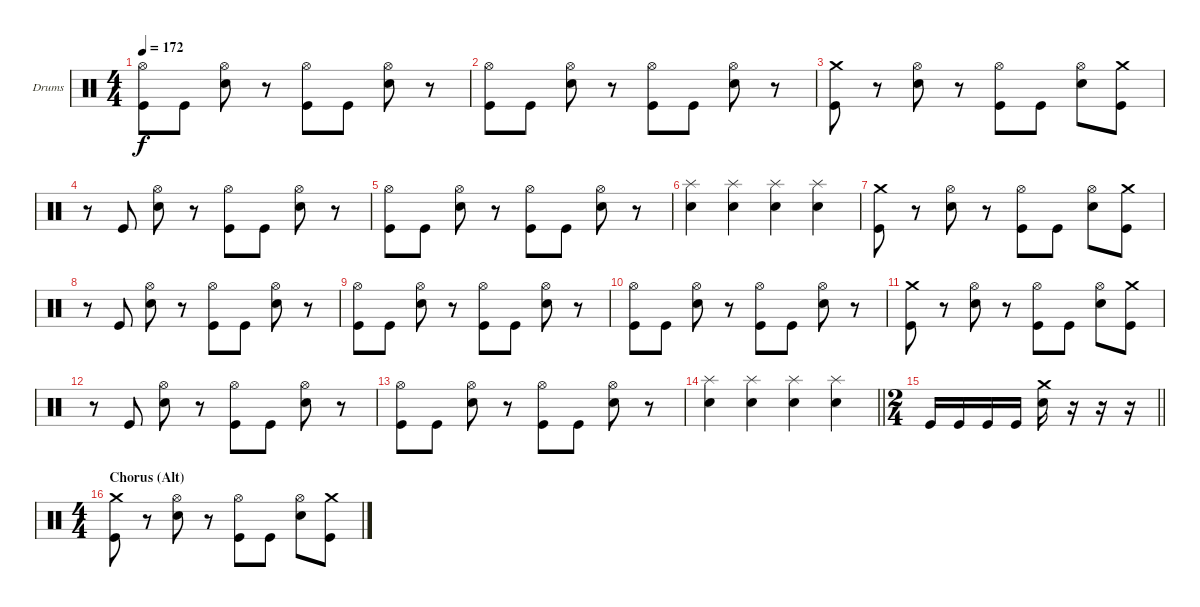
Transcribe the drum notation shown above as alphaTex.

\bracketExtendMode groupsimilarinstruments
\firstSystemTrackNameOrientation horizontal
\otherSystemsTrackNameOrientation horizontal
\track ("Drumkit" "Drums") {instrument percussion}
\staff {score}
\articulation defaults
\ts (4 4)
\tempo 172
\clef neutral
\ks c
("Hi-Hat (open)" "Kick (hit)").8{dy f} "Kick (hit)".8 ("Hi-Hat (open)" "Snare (hit) 2").8 r.8 ("Hi-Hat (open)" "Kick (hit)").8 "Kick (hit)".8 ("Hi-Hat (open)" "Snare (hit) 2").8 r.8 |
("Hi-Hat (open)" "Kick (hit)").8 "Kick (hit)".8 ("Hi-Hat (open)" "Snare (hit) 2").8 r.8 ("Hi-Hat (open)" "Kick (hit)").8 "Kick (hit)".8 ("Hi-Hat (open)" "Snare (hit) 2").8 r.8 |
("Crash medium (hit)" "Kick (hit)").8 r.8 ("Hi-Hat (open)" "Snare (hit) 2").8 r.8 ("Hi-Hat (open)" "Kick (hit)").8 "Kick (hit)".8 ("Hi-Hat (open)" "Snare (hit) 2").8 ("Crash medium (hit)" "Kick (hit)").8 |
r.8 "Kick (hit)".8 ("Hi-Hat (open)" "Snare (hit) 2").8 r.8 ("Hi-Hat (open)" "Kick (hit)").8 "Kick (hit)".8 ("Hi-Hat (open)" "Snare (hit) 2").8 r.8 |
("Hi-Hat (open)" "Kick (hit)").8 "Kick (hit)".8 ("Hi-Hat (open)" "Snare (hit) 2").8 r.8 ("Hi-Hat (open)" "Kick (hit)").8 "Kick (hit)".8 ("Hi-Hat (open)" "Snare (hit) 2").8 r.8 |
("Splash (hit)" "Snare (hit) 2").4 ("Splash (hit)" "Snare (hit) 2").4 ("Splash (hit)" "Snare (hit) 2").4 ("Splash (hit)" "Snare (hit) 2").4 |
("Crash medium (hit)" "Kick (hit)").8 r.8 ("Hi-Hat (open)" "Snare (hit) 2").8 r.8 ("Hi-Hat (open)" "Kick (hit)").8 "Kick (hit)".8 ("Hi-Hat (open)" "Snare (hit) 2").8 ("Crash medium (hit)" "Kick (hit)").8 |
r.8 "Kick (hit)".8 ("Hi-Hat (open)" "Snare (hit) 2").8 r.8 ("Hi-Hat (open)" "Kick (hit)").8 "Kick (hit)".8 ("Hi-Hat (open)" "Snare (hit) 2").8 r.8 |
("Hi-Hat (open)" "Kick (hit)").8 "Kick (hit)".8 ("Hi-Hat (open)" "Snare (hit) 2").8 r.8 ("Hi-Hat (open)" "Kick (hit)").8 "Kick (hit)".8 ("Hi-Hat (open)" "Snare (hit) 2").8 r.8 |
("Hi-Hat (open)" "Kick (hit)").8 "Kick (hit)".8 ("Hi-Hat (open)" "Snare (hit) 2").8 r.8 ("Hi-Hat (open)" "Kick (hit)").8 "Kick (hit)".8 ("Hi-Hat (open)" "Snare (hit) 2").8 r.8 |
("Crash medium (hit)" "Kick (hit)").8 r.8 ("Hi-Hat (open)" "Snare (hit) 2").8 r.8 ("Hi-Hat (open)" "Kick (hit)").8 "Kick (hit)".8 ("Hi-Hat (open)" "Snare (hit) 2").8 ("Crash medium (hit)" "Kick (hit)").8 |
r.8 "Kick (hit)".8 ("Hi-Hat (open)" "Snare (hit) 2").8 r.8 ("Hi-Hat (open)" "Kick (hit)").8 "Kick (hit)".8 ("Hi-Hat (open)" "Snare (hit) 2").8 r.8 |
("Hi-Hat (open)" "Kick (hit)").8 "Kick (hit)".8 ("Hi-Hat (open)" "Snare (hit) 2").8 r.8 ("Hi-Hat (open)" "Kick (hit)").8 "Kick (hit)".8 ("Hi-Hat (open)" "Snare (hit) 2").8 r.8 |
\barLineRight lightlight
("Splash (hit)" "Snare (hit) 2").4 ("Splash (hit)" "Snare (hit) 2").4 ("Splash (hit)" "Snare (hit) 2").4 ("Splash (hit)" "Snare (hit) 2").4 |
\ts (2 4)
\beaming (8 2 2)
\barLineRight lightlight "Kick (hit)".16 "Kick (hit)".16 "Kick (hit)".16 "Kick (hit)".16
("Crash medium (hit)" "Snare (hit) 2").16 r.16 r.16 r.16 |
\ts (4 4)
\beaming (8 2 2 2 2)
\section ("" "Chorus (Alt)")
("Crash medium (hit)" "Kick (hit)").8 r.8 ("Hi-Hat (open)" "Snare (hit) 2").8 r.8 ("Hi-Hat (open)" "Kick (hit)").8 "Kick (hit)".8 ("Hi-Hat (open)" "Snare (hit) 2").8 ("Crash medium (hit)" "Kick (hit)").8
